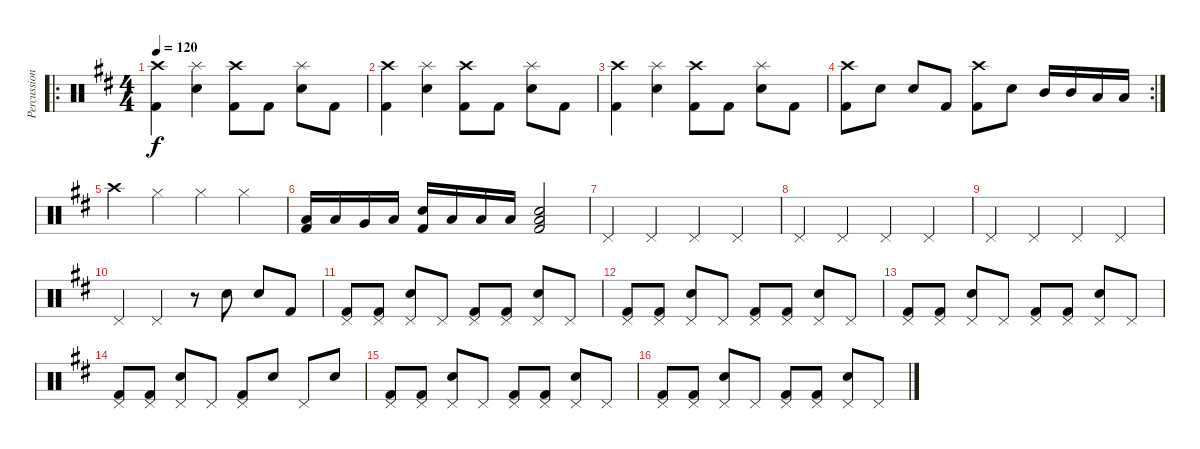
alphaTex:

\track ("Percussion" "Percussion") {instrument percussion}
\staff {score}
\articulation defaults
\ro
\ts (4 4)
\tempo 120
\clef neutral
\ks d
("Crash high (hit)" "Kick (hit) 2").4{dy f} ("Splash (hit)" "Snare (hit) 2").4 ("Crash high (hit)" "Kick (hit) 2").8 "Kick (hit) 2".8 ("Splash (hit)" "Snare (hit) 2").8 "Kick (hit) 2".8 |
("Crash high (hit)" "Kick (hit) 2").4 ("Splash (hit)" "Snare (hit) 2").4 ("Crash high (hit)" "Kick (hit) 2").8 "Kick (hit) 2".8 ("Splash (hit)" "Snare (hit) 2").8 "Kick (hit) 2".8 |
("Crash high (hit)" "Kick (hit) 2").4 ("Splash (hit)" "Snare (hit) 2").4 ("Crash high (hit)" "Kick (hit) 2").8 "Kick (hit) 2".8 ("Splash (hit)" "Snare (hit) 2").8 "Kick (hit) 2".8 |
\rc 2
("Crash high (hit)" "Kick (hit) 2").8 "Snare (hit) 2".8 "Snare (hit) 2".8 "Kick (hit) 2".8 ("Crash high (hit)" "Kick (hit) 2").8 "Snare (hit) 2".8 "Mid Tom (hit)".16 "Mid Tom (hit)".16 "Low Tom (hit)".16 "Low Tom (hit)".16 |
"Crash high (hit)".4 "Hi-Hat (closed)".4 "Hi-Hat (closed)".4 "Hi-Hat (closed)".4 |
("Low Floor Tom (hit)" "Kick (hit) 2").16 "Low Floor Tom (hit)".16 "Very Low Tom (hit)".16 "Low Floor Tom (hit)".16 ("Snare (hit) 2" "Kick (hit) 2").16 "Low Floor Tom (hit)".16 "Low Floor Tom (hit)".16 "Low Floor Tom (hit)".16 ("Low Floor Tom (hit)" "Snare (hit) 2" "Kick (hit) 2").2 |
"Pedal Hi-Hat (hit)".4 "Pedal Hi-Hat (hit)".4 "Pedal Hi-Hat (hit)".4 "Pedal Hi-Hat (hit)".4 |
"Pedal Hi-Hat (hit)".4 "Pedal Hi-Hat (hit)".4 "Pedal Hi-Hat (hit)".4 "Pedal Hi-Hat (hit)".4 |
"Pedal Hi-Hat (hit)".4 "Pedal Hi-Hat (hit)".4 "Pedal Hi-Hat (hit)".4 "Pedal Hi-Hat (hit)".4 |
"Pedal Hi-Hat (hit)".4 "Pedal Hi-Hat (hit)".4 r.8 "Snare (hit) 2".8 "Snare (hit) 2".8 "Kick (hit) 2".8 |
("Pedal Hi-Hat (hit)" "Kick (hit) 2").8 ("Pedal Hi-Hat (hit)" "Kick (hit) 2").8 ("Pedal Hi-Hat (hit)" "Snare (hit) 2").8 "Pedal Hi-Hat (hit)".8 ("Pedal Hi-Hat (hit)" "Kick (hit) 2").8 ("Pedal Hi-Hat (hit)" "Kick (hit) 2").8 ("Pedal Hi-Hat (hit)" "Snare (hit) 2").8 "Pedal Hi-Hat (hit)".8 |
("Pedal Hi-Hat (hit)" "Kick (hit) 2").8 ("Pedal Hi-Hat (hit)" "Kick (hit) 2").8 ("Pedal Hi-Hat (hit)" "Snare (hit) 2").8 "Pedal Hi-Hat (hit)".8 ("Pedal Hi-Hat (hit)" "Kick (hit) 2").8 ("Pedal Hi-Hat (hit)" "Kick (hit) 2").8 ("Pedal Hi-Hat (hit)" "Snare (hit) 2").8 "Pedal Hi-Hat (hit)".8 |
("Pedal Hi-Hat (hit)" "Kick (hit) 2").8 ("Pedal Hi-Hat (hit)" "Kick (hit) 2").8 ("Pedal Hi-Hat (hit)" "Snare (hit) 2").8 "Pedal Hi-Hat (hit)".8 ("Pedal Hi-Hat (hit)" "Kick (hit) 2").8 ("Pedal Hi-Hat (hit)" "Kick (hit) 2").8 ("Pedal Hi-Hat (hit)" "Snare (hit) 2").8 "Pedal Hi-Hat (hit)".8 |
("Pedal Hi-Hat (hit)" "Kick (hit) 2").8 ("Pedal Hi-Hat (hit)" "Kick (hit) 2").8 ("Pedal Hi-Hat (hit)" "Snare (hit) 2").8 "Pedal Hi-Hat (hit)".8 ("Pedal Hi-Hat (hit)" "Kick (hit) 2").8 "Snare (hit) 2".8 "Pedal Hi-Hat (hit)".8 "Snare (hit) 2".8 |
("Pedal Hi-Hat (hit)" "Kick (hit) 2").8 ("Pedal Hi-Hat (hit)" "Kick (hit) 2").8 ("Pedal Hi-Hat (hit)" "Snare (hit) 2").8 "Pedal Hi-Hat (hit)".8 ("Pedal Hi-Hat (hit)" "Kick (hit) 2").8 ("Pedal Hi-Hat (hit)" "Kick (hit) 2").8 ("Pedal Hi-Hat (hit)" "Snare (hit) 2").8 "Pedal Hi-Hat (hit)".8 |
("Pedal Hi-Hat (hit)" "Kick (hit) 2").8 ("Pedal Hi-Hat (hit)" "Kick (hit) 2").8 ("Pedal Hi-Hat (hit)" "Snare (hit) 2").8 "Pedal Hi-Hat (hit)".8 ("Pedal Hi-Hat (hit)" "Kick (hit) 2").8 ("Pedal Hi-Hat (hit)" "Kick (hit) 2").8 ("Pedal Hi-Hat (hit)" "Snare (hit) 2").8 "Pedal Hi-Hat (hit)".8
